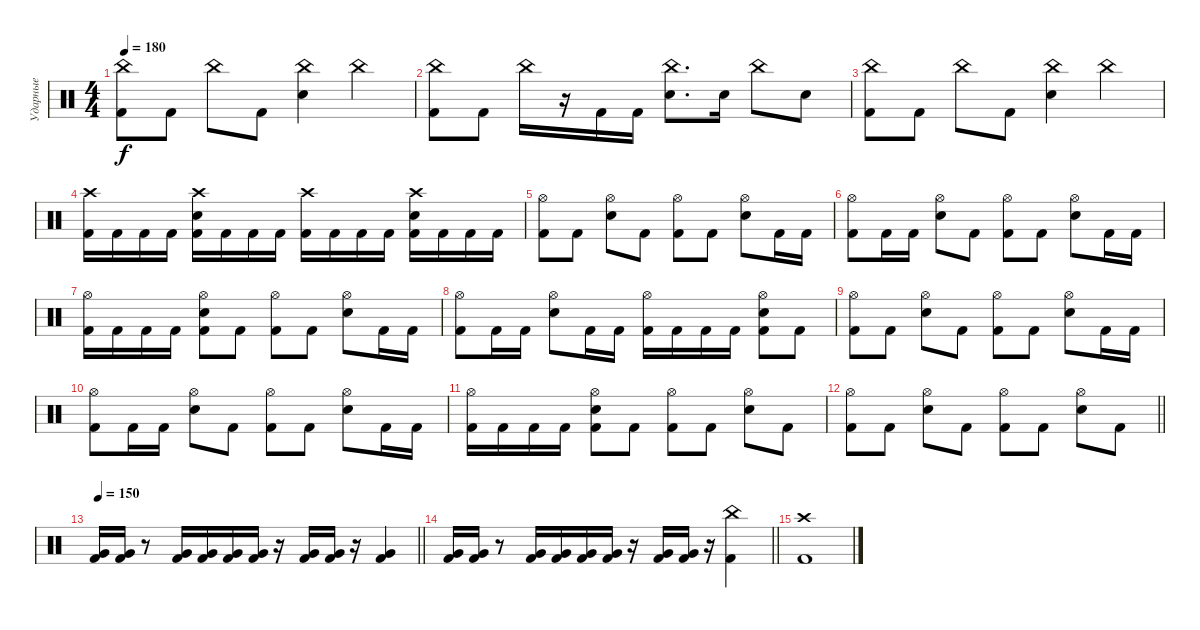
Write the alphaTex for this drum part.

\track ("Ударные" "Ударные") {instrument percussion}
\staff {score}
\articulation defaults
\ts (4 4)
\tempo 180
\clef neutral
\ks c
("China (hit)" "Kick (hit) 2").8{dy f} "Kick (hit) 2".8 "China (hit)".8 "Kick (hit) 2".8 ("China (hit)" "Electric Snare (hit)").4 "China (hit)".4 |
("China (hit)" "Kick (hit) 2").8 "Kick (hit) 2".8 "China (hit)".16 r.16 "Kick (hit) 2".16 "Kick (hit) 2".16 ("China (hit)" "Electric Snare (hit)").8{d} "Electric Snare (hit)".16 "China (hit)".8 "Electric Snare (hit)".8 |
("China (hit)" "Kick (hit) 2").8 "Kick (hit) 2".8 "China (hit)".8 "Kick (hit) 2".8 ("China (hit)" "Electric Snare (hit)").4 "China (hit)".4 |
("Crash high (hit)" "Kick (hit) 2").16 "Kick (hit) 2".16 "Kick (hit) 2".16 "Kick (hit) 2".16 ("Crash high (hit)" "Electric Snare (hit)" "Kick (hit) 2").16 "Kick (hit) 2".16 "Kick (hit) 2".16 "Kick (hit) 2".16 ("Crash high (hit)" "Kick (hit) 2").16 "Kick (hit) 2".16 "Kick (hit) 2".16 "Kick (hit) 2".16 ("Crash high (hit)" "Electric Snare (hit)" "Kick (hit) 2").16 "Kick (hit) 2".16 "Kick (hit) 2".16 "Kick (hit) 2".16 |
("Hi-Hat (open)" "Kick (hit) 2").8 "Kick (hit) 2".8 ("Hi-Hat (open)" "Electric Snare (hit)").8 "Kick (hit) 2".8 ("Hi-Hat (open)" "Kick (hit) 2").8 "Kick (hit) 2".8 ("Hi-Hat (open)" "Electric Snare (hit)").8 "Kick (hit) 2".16 "Kick (hit) 2".16 |
("Hi-Hat (open)" "Kick (hit) 2").8 "Kick (hit) 2".16 "Kick (hit) 2".16 ("Hi-Hat (open)" "Electric Snare (hit)").8 "Kick (hit) 2".8 ("Hi-Hat (open)" "Kick (hit) 2").8 "Kick (hit) 2".8 ("Hi-Hat (open)" "Electric Snare (hit)").8 "Kick (hit) 2".16 "Kick (hit) 2".16 |
("Hi-Hat (open)" "Kick (hit) 2").16 "Kick (hit) 2".16 "Kick (hit) 2".16 "Kick (hit) 2".16 ("Hi-Hat (open)" "Electric Snare (hit)" "Kick (hit) 2").8 "Kick (hit) 2".8 ("Hi-Hat (open)" "Kick (hit) 2").8 "Kick (hit) 2".8 ("Hi-Hat (open)" "Electric Snare (hit)").8 "Kick (hit) 2".16 "Kick (hit) 2".16 |
("Hi-Hat (open)" "Kick (hit) 2").8 "Kick (hit) 2".16 "Kick (hit) 2".16 ("Hi-Hat (open)" "Electric Snare (hit)").8 "Kick (hit) 2".16 "Kick (hit) 2".16 ("Hi-Hat (open)" "Kick (hit) 2").16 "Kick (hit) 2".16 "Kick (hit) 2".16 "Kick (hit) 2".16 ("Hi-Hat (open)" "Electric Snare (hit)" "Kick (hit) 2").8 "Kick (hit) 2".8 |
("Hi-Hat (open)" "Kick (hit) 2").8 "Kick (hit) 2".8 ("Hi-Hat (open)" "Electric Snare (hit)").8 "Kick (hit) 2".8 ("Hi-Hat (open)" "Kick (hit) 2").8 "Kick (hit) 2".8 ("Hi-Hat (open)" "Electric Snare (hit)").8 "Kick (hit) 2".16 "Kick (hit) 2".16 |
("Hi-Hat (open)" "Kick (hit) 2").8 "Kick (hit) 2".16 "Kick (hit) 2".16 ("Hi-Hat (open)" "Electric Snare (hit)").8 "Kick (hit) 2".8 ("Hi-Hat (open)" "Kick (hit) 2").8 "Kick (hit) 2".8 ("Hi-Hat (open)" "Electric Snare (hit)").8 "Kick (hit) 2".16 "Kick (hit) 2".16 |
("Hi-Hat (open)" "Kick (hit) 2").16 "Kick (hit) 2".16 "Kick (hit) 2".16 "Kick (hit) 2".16 ("Hi-Hat (open)" "Electric Snare (hit)" "Kick (hit) 2").8 "Kick (hit) 2".8 ("Hi-Hat (open)" "Kick (hit) 2").8 "Kick (hit) 2".8 ("Hi-Hat (open)" "Electric Snare (hit)").8 "Kick (hit) 2".8 |
\barLineRight lightlight
("Hi-Hat (open)" "Kick (hit) 2").8 "Kick (hit) 2".8 ("Hi-Hat (open)" "Electric Snare (hit)").8 "Kick (hit) 2".8 ("Hi-Hat (open)" "Kick (hit) 2").8 "Kick (hit) 2".8 ("Hi-Hat (open)" "Electric Snare (hit)").8 "Kick (hit) 2".8 |
\tempo 150
\barLineRight lightlight
("Very Low Tom (hit)" "Kick (hit) 2").16 ("Very Low Tom (hit)" "Kick (hit) 2").16 r.8 ("Very Low Tom (hit)" "Kick (hit) 2").16 ("Very Low Tom (hit)" "Kick (hit) 2").16 ("Very Low Tom (hit)" "Kick (hit) 2").16 ("Very Low Tom (hit)" "Kick (hit) 2").16 r.16 ("Very Low Tom (hit)" "Kick (hit) 2").16 ("Very Low Tom (hit)" "Kick (hit) 2").16 r.16 ("Very Low Tom (hit)" "Kick (hit) 2").4 |
\barLineRight lightlight
("Very Low Tom (hit)" "Kick (hit) 2").16 ("Very Low Tom (hit)" "Kick (hit) 2").16 r.8 ("Very Low Tom (hit)" "Kick (hit) 2").16 ("Very Low Tom (hit)" "Kick (hit) 2").16 ("Very Low Tom (hit)" "Kick (hit) 2").16 ("Very Low Tom (hit)" "Kick (hit) 2").16 r.16 ("Very Low Tom (hit)" "Kick (hit) 2").16 ("Very Low Tom (hit)" "Kick (hit) 2").16 r.16 ("China (hit)" "Kick (hit) 2").4 |
("Crash high (hit)" "Kick (hit) 2").1
